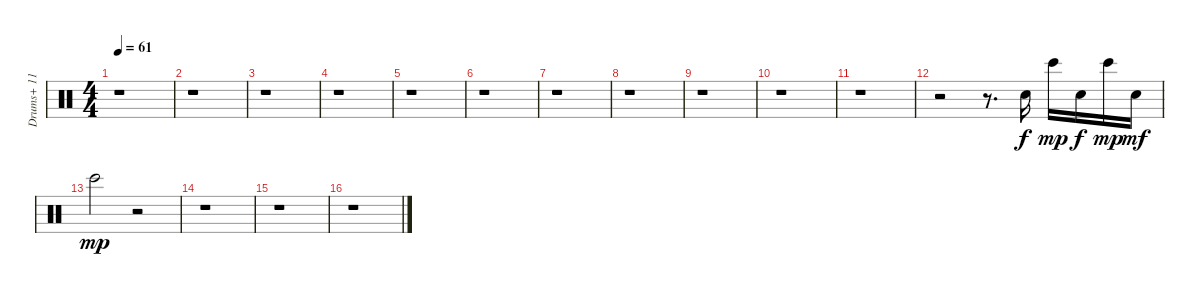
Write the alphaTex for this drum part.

\track ("Drums+ 11" "Drums+ 11") {instrument percussion}
\staff {score}
\articulation defaults
\ts (4 4)
\tempo 61
\clef neutral
\ks c
r.1{dy f} |
r.1 |
r.1 |
r.1 |
r.1 |
r.1 |
r.1 |
r.1 |
r.1 |
r.1 |
r.1 |
r.2 r.8{d} "Snare (hit) 2".16 "Bongo High (hit)".16{dy mp} "Snare (hit) 2".16{dy f} "Bongo High (hit)".16{dy mp} "Snare (hit) 2".16{dy mf} |
"Bongo High (hit)".2{dy mp} r.2 |
r.1 |
r.1 |
r.1
